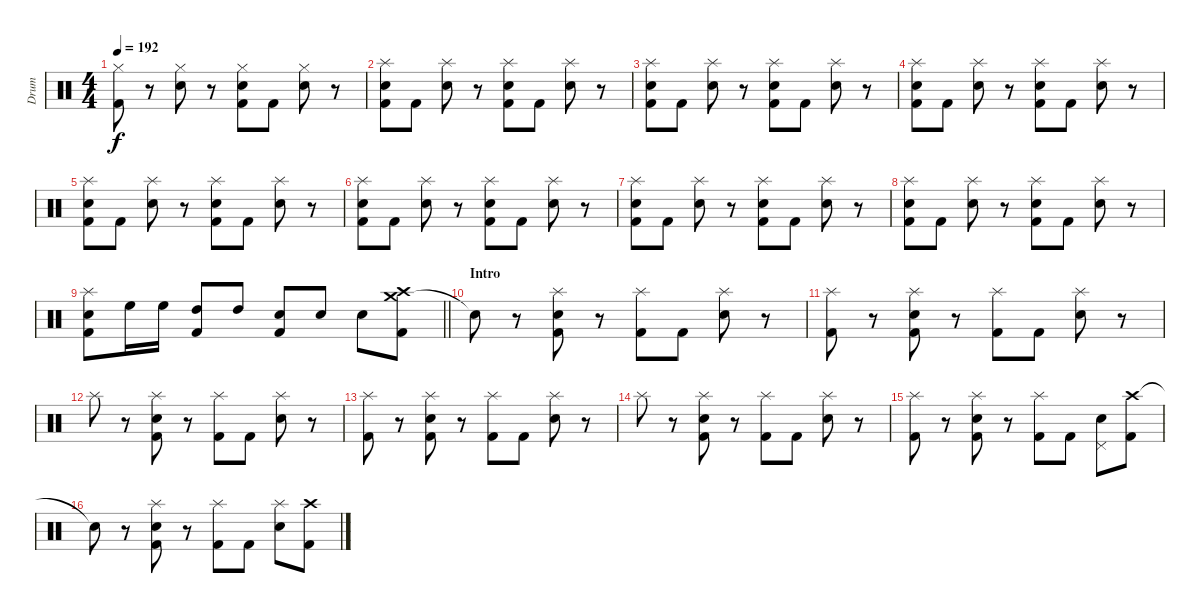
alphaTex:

\track ("Drum" "Drum") {instrument percussion}
\staff {score}
\articulation defaults
\ts (4 4)
\tempo 192
\clef neutral
\ks c
("Hi-Hat (closed)" "Kick (hit) 2").8{dy f} r.8 ("Hi-Hat (closed)" "Electric Snare (hit)").8 r.8 ("Hi-Hat (closed)" "Electric Snare (hit)" "Kick (hit) 2").8 "Kick (hit) 2".8 ("Hi-Hat (closed)" "Electric Snare (hit)").8 r.8 |
("Splash (hit)" "Electric Snare (hit)" "Kick (hit) 2").8 "Kick (hit) 2".8 ("Splash (hit)" "Electric Snare (hit)").8 r.8 ("Splash (hit)" "Electric Snare (hit)" "Kick (hit) 2").8 "Kick (hit) 2".8 ("Splash (hit)" "Electric Snare (hit)").8 r.8 |
("Splash (hit)" "Electric Snare (hit)" "Kick (hit) 2").8 "Kick (hit) 2".8 ("Splash (hit)" "Electric Snare (hit)").8 r.8 ("Splash (hit)" "Electric Snare (hit)" "Kick (hit) 2").8 "Kick (hit) 2".8 ("Splash (hit)" "Electric Snare (hit)").8 r.8 |
("Splash (hit)" "Electric Snare (hit)" "Kick (hit) 2").8 "Kick (hit) 2".8 ("Splash (hit)" "Electric Snare (hit)").8 r.8 ("Splash (hit)" "Electric Snare (hit)" "Kick (hit) 2").8 "Kick (hit) 2".8 ("Splash (hit)" "Electric Snare (hit)").8 r.8 |
("Splash (hit)" "Electric Snare (hit)" "Kick (hit) 2").8 "Kick (hit) 2".8 ("Splash (hit)" "Electric Snare (hit)").8 r.8 ("Splash (hit)" "Electric Snare (hit)" "Kick (hit) 2").8 "Kick (hit) 2".8 ("Splash (hit)" "Electric Snare (hit)").8 r.8 |
("Splash (hit)" "Electric Snare (hit)" "Kick (hit) 2").8 "Kick (hit) 2".8 ("Splash (hit)" "Electric Snare (hit)").8 r.8 ("Splash (hit)" "Electric Snare (hit)" "Kick (hit) 2").8 "Kick (hit) 2".8 ("Splash (hit)" "Electric Snare (hit)").8 r.8 |
("Splash (hit)" "Electric Snare (hit)" "Kick (hit) 2").8 "Kick (hit) 2".8 ("Splash (hit)" "Electric Snare (hit)").8 r.8 ("Splash (hit)" "Electric Snare (hit)" "Kick (hit) 2").8 "Kick (hit) 2".8 ("Splash (hit)" "Electric Snare (hit)").8 r.8 |
("Splash (hit)" "Electric Snare (hit)" "Kick (hit) 2").8 "Kick (hit) 2".8 ("Splash (hit)" "Electric Snare (hit)").8 r.8 ("Splash (hit)" "Electric Snare (hit)" "Kick (hit) 2").8 "Kick (hit) 2".8 ("Splash (hit)" "Electric Snare (hit)").8 r.8 |
\barLineRight lightlight
("Splash (hit)" "Electric Snare (hit)" "Kick (hit) 2").8 "High Floor Tom (hit)".16 "High Floor Tom (hit)".16 ("High Tom (hit)" "Kick (hit) 2").8 "High Tom (hit)".8 ("Electric Snare (hit)" "Kick (hit) 2").8 "Electric Snare (hit)".8 "Electric Snare (hit)".8 ("Crash medium (hit)" "Crash high (hit)" "Kick (hit) 2").8 |
\section ("" "Intro")
"Snare (hit)"{t}.8 r.8 ("Splash (hit)" "Electric Snare (hit)" "Kick (hit) 2").8 r.8 ("Splash (hit)" "Kick (hit) 2").8 "Kick (hit) 2".8 ("Splash (hit)" "Electric Snare (hit)").8 r.8 |
("Splash (hit)" "Kick (hit) 2").8 r.8 ("Splash (hit)" "Electric Snare (hit)" "Kick (hit) 2").8 r.8 ("Splash (hit)" "Kick (hit) 2").8 "Kick (hit) 2".8 ("Splash (hit)" "Electric Snare (hit)").8 r.8 |
"Splash (hit)".8 r.8 ("Splash (hit)" "Electric Snare (hit)" "Kick (hit) 2").8 r.8 ("Splash (hit)" "Kick (hit) 2").8 "Kick (hit) 2".8 ("Splash (hit)" "Electric Snare (hit)").8 r.8 |
("Splash (hit)" "Kick (hit) 2").8 r.8 ("Splash (hit)" "Electric Snare (hit)" "Kick (hit) 2").8 r.8 ("Splash (hit)" "Kick (hit) 2").8 "Kick (hit) 2".8 ("Splash (hit)" "Electric Snare (hit)").8 r.8 |
"Splash (hit)".8 r.8 ("Splash (hit)" "Electric Snare (hit)" "Kick (hit) 2").8 r.8 ("Splash (hit)" "Kick (hit) 2").8 "Kick (hit) 2".8 ("Splash (hit)" "Electric Snare (hit)").8 r.8 |
("Splash (hit)" "Kick (hit) 2").8 r.8 ("Splash (hit)" "Electric Snare (hit)" "Kick (hit) 2").8 r.8 ("Splash (hit)" "Kick (hit) 2").8 "Kick (hit) 2".8 ("Pedal Hi-Hat (hit)" "Electric Snare (hit)").8 ("Crash high (hit)" "Kick (hit) 2").8 |
"Snare (hit)"{t}.8 r.8 ("Splash (hit)" "Electric Snare (hit)" "Kick (hit) 2").8 r.8 ("Splash (hit)" "Kick (hit) 2").8 "Kick (hit) 2".8 ("Splash (hit)" "Electric Snare (hit)").8 ("Crash high (hit)" "Kick (hit) 2").8
